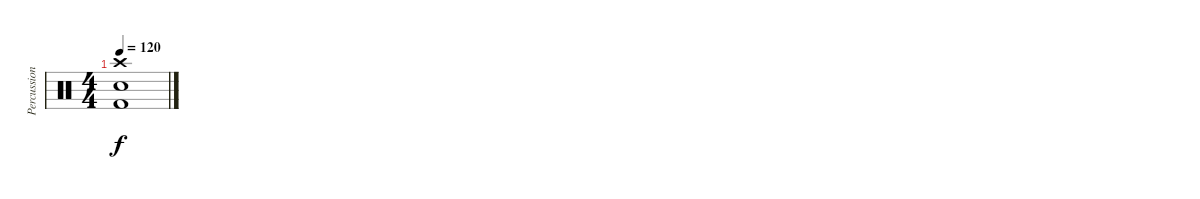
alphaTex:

\track ("Percussion" "Percussion") {instrument percussion}
\staff {score}
\articulation defaults
\ts (4 4)
\tempo 120
\clef neutral
\ks c
("Crash high (hit)" "Electric Snare (hit)" "Kick (hit) 2").1{dy f}
